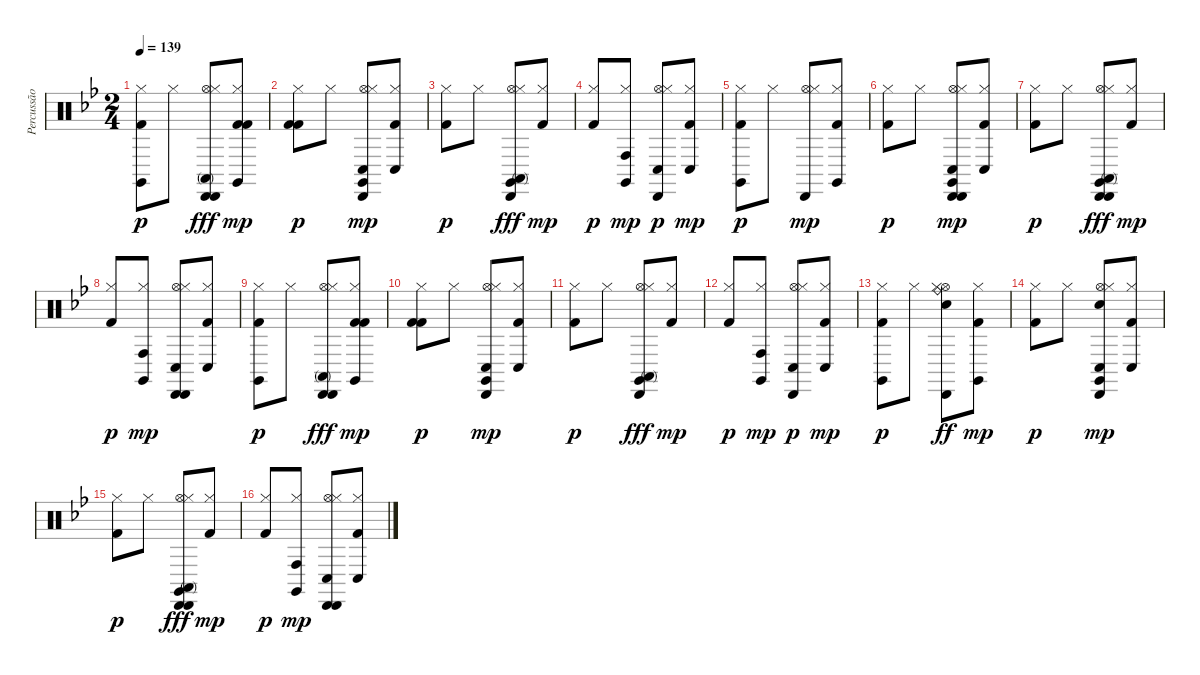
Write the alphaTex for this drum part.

\track ("Percussão" "Percussão") {instrument percussion}
\staff {score}
\articulation defaults
\ts (2 4)
\tempo 139
\clef neutral
\ks bb
("Kick (hit) 2" "Claves (hit)" "Hi-Hat (closed)").8{dy p} "Hi-Hat (closed)".8 ("Hi-Hat (open)" "Hi-Hat (closed)" "Cabasa (hit)" "Cabasa (hit)" "Conga high (mute)").8{dy fff} ("Hi-Hat (closed)" "Claves (hit)" "Kick (hit) 2" "Kick (hit) 2").8{dy mp} |
("Kick (hit) 2" "Kick (hit) 2" "Hi-Hat (closed)").8{dy p} "Hi-Hat (closed)".8 ("Hi-Hat (open)" "Hi-Hat (closed)" "Claves (hit)" "Conga low (hit)" "Cabasa (hit)").8{dy mp} ("Hi-Hat (closed)" "Conga low (hit)" "Kick (hit) 2").8 |
("Kick (hit) 2" "Hi-Hat (closed)").8{dy p} "Hi-Hat (closed)".8 ("Hi-Hat (open)" "Hi-Hat (closed)" "Claves (hit)" "Cabasa (hit)" "Conga high (mute)").8{dy fff} ("Hi-Hat (closed)" "Kick (hit) 2").8{dy mp} |
("Kick (hit) 2" "Hi-Hat (closed)").8{dy p} ("Hi-Hat (closed)" "Claves (hit)" "Conga high (hit)").8{dy mp} ("Hi-Hat (open)" "Hi-Hat (closed)" "Conga low (hit)" "Cabasa (hit)").8{dy p} ("Hi-Hat (closed)" "Conga low (hit)" "Kick (hit) 2").8{dy mp} |
("Kick (hit) 2" "Claves (hit)" "Hi-Hat (closed)").8{dy p} "Hi-Hat (closed)".8 ("Hi-Hat (open)" "Hi-Hat (closed)" "Cabasa (hit)").8{dy mp} ("Hi-Hat (closed)" "Claves (hit)" "Kick (hit) 2").8 |
("Kick (hit) 2" "Hi-Hat (closed)").8{dy p} "Hi-Hat (closed)".8 ("Hi-Hat (open)" "Hi-Hat (closed)" "Claves (hit)" "Conga low (hit)" "Cabasa (hit)" "Cabasa (hit)").8{dy mp} ("Hi-Hat (closed)" "Conga low (hit)" "Kick (hit) 2").8 |
("Kick (hit) 2" "Hi-Hat (closed)").8{dy p} "Hi-Hat (closed)".8 ("Hi-Hat (open)" "Hi-Hat (closed)" "Claves (hit)" "Cabasa (hit)" "Cabasa (hit)" "Conga high (mute)").8{dy fff} ("Hi-Hat (closed)" "Kick (hit) 2").8{dy mp} |
("Kick (hit) 2" "Hi-Hat (closed)").8{dy p} ("Hi-Hat (closed)" "Claves (hit)" "Conga high (hit)").8{dy mp} ("Hi-Hat (open)" "Hi-Hat (closed)" "Conga low (hit)" "Cabasa (hit)" "Cabasa (hit)").8 ("Hi-Hat (closed)" "Conga low (hit)" "Kick (hit) 2").8 |
("Kick (hit) 2" "Claves (hit)" "Hi-Hat (closed)").8{dy p} "Hi-Hat (closed)".8 ("Hi-Hat (open)" "Hi-Hat (closed)" "Cabasa (hit)" "Cabasa (hit)" "Conga high (mute)").8{dy fff} ("Hi-Hat (closed)" "Claves (hit)" "Kick (hit) 2" "Kick (hit) 2").8{dy mp} |
("Kick (hit) 2" "Kick (hit) 2" "Hi-Hat (closed)").8{dy p} "Hi-Hat (closed)".8 ("Hi-Hat (open)" "Hi-Hat (closed)" "Claves (hit)" "Conga low (hit)" "Cabasa (hit)").8{dy mp} ("Hi-Hat (closed)" "Conga low (hit)" "Kick (hit) 2").8 |
("Kick (hit) 2" "Hi-Hat (closed)").8{dy p} "Hi-Hat (closed)".8 ("Hi-Hat (open)" "Hi-Hat (closed)" "Claves (hit)" "Cabasa (hit)" "Conga high (mute)").8{dy fff} ("Hi-Hat (closed)" "Kick (hit) 2").8{dy mp} |
("Kick (hit) 2" "Hi-Hat (closed)").8{dy p} ("Hi-Hat (closed)" "Claves (hit)" "Conga high (hit)").8{dy mp} ("Hi-Hat (open)" "Hi-Hat (closed)" "Conga low (hit)" "Cabasa (hit)").8{dy p} ("Hi-Hat (closed)" "Conga low (hit)" "Kick (hit) 2").8{dy mp} |
("Kick (hit) 2" "Claves (hit)" "Hi-Hat (closed)").8{dy p} "Hi-Hat (closed)".8 ("Hi-Hat (open)" "Hi-Hat (closed)" "Electric Snare (hit)" "Cabasa (hit)" "Ride (bell)").8{dy ff} ("Hi-Hat (closed)" "Claves (hit)" "Kick (hit) 2").8{dy mp} |
("Kick (hit) 2" "Hi-Hat (closed)").8{dy p} "Hi-Hat (closed)".8 ("Hi-Hat (open)" "Hi-Hat (closed)" "Claves (hit)" "Conga low (hit)" "Electric Snare (hit)" "Cabasa (hit)").8{dy mp} ("Hi-Hat (closed)" "Conga low (hit)" "Kick (hit) 2").8 |
("Kick (hit) 2" "Hi-Hat (closed)").8{dy p} "Hi-Hat (closed)".8 ("Hi-Hat (open)" "Hi-Hat (closed)" "Claves (hit)" "Cabasa (hit)" "Cabasa (hit)" "Conga high (mute)").8{dy fff} ("Hi-Hat (closed)" "Kick (hit) 2").8{dy mp} |
("Kick (hit) 2" "Hi-Hat (closed)").8{dy p} ("Hi-Hat (closed)" "Claves (hit)" "Conga high (hit)").8{dy mp} ("Hi-Hat (open)" "Hi-Hat (closed)" "Conga low (hit)" "Cabasa (hit)" "Cabasa (hit)").8 ("Hi-Hat (closed)" "Conga low (hit)" "Kick (hit) 2").8
